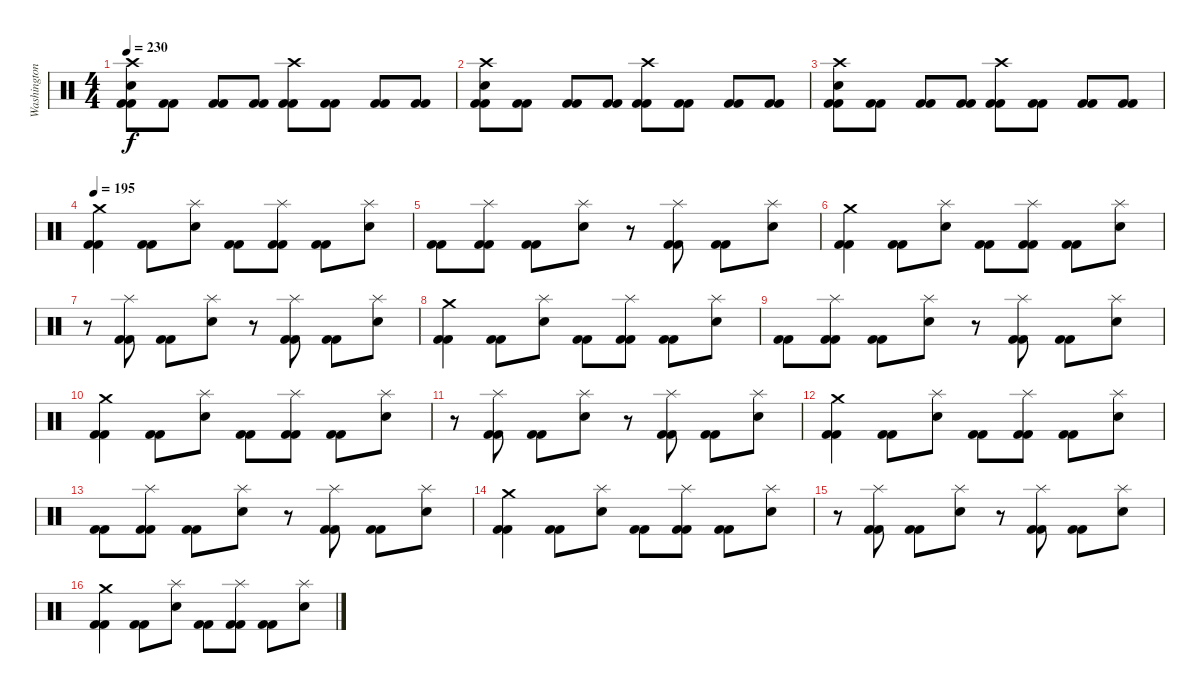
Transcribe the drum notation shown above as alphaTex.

\track ("Washington" "Washington") {solo instrument percussion}
\staff {score}
\articulation defaults
\ts (4 4)
\tempo 230
\clef neutral
\ks c
("Crash high (hit)" "Electric Snare (hit)" "Kick (hit) 2" "Kick (hit) 2").8{dy f} ("Kick (hit) 2" "Kick (hit) 2").8 ("Kick (hit) 2" "Kick (hit) 2").8 ("Kick (hit) 2" "Kick (hit) 2").8 ("Crash high (hit)" "Kick (hit) 2" "Kick (hit) 2").8 ("Kick (hit) 2" "Kick (hit) 2").8 ("Kick (hit) 2" "Kick (hit) 2").8 ("Kick (hit) 2" "Kick (hit) 2").8 |
("Crash high (hit)" "Electric Snare (hit)" "Kick (hit) 2" "Kick (hit) 2").8 ("Kick (hit) 2" "Kick (hit) 2").8 ("Kick (hit) 2" "Kick (hit) 2").8 ("Kick (hit) 2" "Kick (hit) 2").8 ("Crash high (hit)" "Kick (hit) 2" "Kick (hit) 2").8 ("Kick (hit) 2" "Kick (hit) 2").8 ("Kick (hit) 2" "Kick (hit) 2").8 ("Kick (hit) 2" "Kick (hit) 2").8 |
("Crash high (hit)" "Electric Snare (hit)" "Kick (hit) 2" "Kick (hit) 2").8 ("Kick (hit) 2" "Kick (hit) 2").8 ("Kick (hit) 2" "Kick (hit) 2").8 ("Kick (hit) 2" "Kick (hit) 2").8 ("Crash high (hit)" "Kick (hit) 2" "Kick (hit) 2").8 ("Kick (hit) 2" "Kick (hit) 2").8 ("Kick (hit) 2" "Kick (hit) 2").8 ("Kick (hit) 2" "Kick (hit) 2").8 |
\tempo 195
("Crash medium (hit)" "Kick (hit) 2" "Kick (hit) 2").4 ("Kick (hit) 2" "Kick (hit) 2").8 ("Splash (hit)" "Electric Snare (hit)").8 ("Kick (hit) 2" "Kick (hit) 2").8 ("Splash (hit)" "Kick (hit) 2" "Kick (hit) 2").8 ("Kick (hit) 2" "Kick (hit) 2").8 ("Splash (hit)" "Electric Snare (hit)").8 |
("Kick (hit) 2" "Kick (hit) 2").8 ("Splash (hit)" "Kick (hit) 2" "Kick (hit) 2").8 ("Kick (hit) 2" "Kick (hit) 2").8 ("Splash (hit)" "Electric Snare (hit)").8 r.8 ("Splash (hit)" "Kick (hit) 2" "Kick (hit) 2").8 ("Kick (hit) 2" "Kick (hit) 2").8 ("Splash (hit)" "Electric Snare (hit)").8 |
("Crash medium (hit)" "Kick (hit) 2" "Kick (hit) 2").4 ("Kick (hit) 2" "Kick (hit) 2").8 ("Splash (hit)" "Electric Snare (hit)").8 ("Kick (hit) 2" "Kick (hit) 2").8 ("Splash (hit)" "Kick (hit) 2" "Kick (hit) 2").8 ("Kick (hit) 2" "Kick (hit) 2").8 ("Splash (hit)" "Electric Snare (hit)").8 |
r.8 ("Splash (hit)" "Kick (hit) 2" "Kick (hit) 2").8 ("Kick (hit) 2" "Kick (hit) 2").8 ("Splash (hit)" "Electric Snare (hit)").8 r.8 ("Splash (hit)" "Kick (hit) 2" "Kick (hit) 2").8 ("Kick (hit) 2" "Kick (hit) 2").8 ("Splash (hit)" "Electric Snare (hit)").8 |
("Crash medium (hit)" "Kick (hit) 2" "Kick (hit) 2").4 ("Kick (hit) 2" "Kick (hit) 2").8 ("Splash (hit)" "Electric Snare (hit)").8 ("Kick (hit) 2" "Kick (hit) 2").8 ("Splash (hit)" "Kick (hit) 2" "Kick (hit) 2").8 ("Kick (hit) 2" "Kick (hit) 2").8 ("Splash (hit)" "Electric Snare (hit)").8 |
("Kick (hit) 2" "Kick (hit) 2").8 ("Splash (hit)" "Kick (hit) 2" "Kick (hit) 2").8 ("Kick (hit) 2" "Kick (hit) 2").8 ("Splash (hit)" "Electric Snare (hit)").8 r.8 ("Splash (hit)" "Kick (hit) 2" "Kick (hit) 2").8 ("Kick (hit) 2" "Kick (hit) 2").8 ("Splash (hit)" "Electric Snare (hit)").8 |
("Crash medium (hit)" "Kick (hit) 2" "Kick (hit) 2").4 ("Kick (hit) 2" "Kick (hit) 2").8 ("Splash (hit)" "Electric Snare (hit)").8 ("Kick (hit) 2" "Kick (hit) 2").8 ("Splash (hit)" "Kick (hit) 2" "Kick (hit) 2").8 ("Kick (hit) 2" "Kick (hit) 2").8 ("Splash (hit)" "Electric Snare (hit)").8 |
r.8 ("Splash (hit)" "Kick (hit) 2" "Kick (hit) 2").8 ("Kick (hit) 2" "Kick (hit) 2").8 ("Splash (hit)" "Electric Snare (hit)").8 r.8 ("Splash (hit)" "Kick (hit) 2" "Kick (hit) 2").8 ("Kick (hit) 2" "Kick (hit) 2").8 ("Splash (hit)" "Electric Snare (hit)").8 |
("Crash medium (hit)" "Kick (hit) 2" "Kick (hit) 2").4 ("Kick (hit) 2" "Kick (hit) 2").8 ("Splash (hit)" "Electric Snare (hit)").8 ("Kick (hit) 2" "Kick (hit) 2").8 ("Splash (hit)" "Kick (hit) 2" "Kick (hit) 2").8 ("Kick (hit) 2" "Kick (hit) 2").8 ("Splash (hit)" "Electric Snare (hit)").8 |
("Kick (hit) 2" "Kick (hit) 2").8 ("Splash (hit)" "Kick (hit) 2" "Kick (hit) 2").8 ("Kick (hit) 2" "Kick (hit) 2").8 ("Splash (hit)" "Electric Snare (hit)").8 r.8 ("Splash (hit)" "Kick (hit) 2" "Kick (hit) 2").8 ("Kick (hit) 2" "Kick (hit) 2").8 ("Splash (hit)" "Electric Snare (hit)").8 |
("Crash medium (hit)" "Kick (hit) 2" "Kick (hit) 2").4 ("Kick (hit) 2" "Kick (hit) 2").8 ("Splash (hit)" "Electric Snare (hit)").8 ("Kick (hit) 2" "Kick (hit) 2").8 ("Splash (hit)" "Kick (hit) 2" "Kick (hit) 2").8 ("Kick (hit) 2" "Kick (hit) 2").8 ("Splash (hit)" "Electric Snare (hit)").8 |
r.8 ("Splash (hit)" "Kick (hit) 2" "Kick (hit) 2").8 ("Kick (hit) 2" "Kick (hit) 2").8 ("Splash (hit)" "Electric Snare (hit)").8 r.8 ("Splash (hit)" "Kick (hit) 2" "Kick (hit) 2").8 ("Kick (hit) 2" "Kick (hit) 2").8 ("Splash (hit)" "Electric Snare (hit)").8 |
("Crash medium (hit)" "Kick (hit) 2" "Kick (hit) 2").4 ("Kick (hit) 2" "Kick (hit) 2").8 ("Splash (hit)" "Electric Snare (hit)").8 ("Kick (hit) 2" "Kick (hit) 2").8 ("Splash (hit)" "Kick (hit) 2" "Kick (hit) 2").8 ("Kick (hit) 2" "Kick (hit) 2").8 ("Splash (hit)" "Electric Snare (hit)").8
